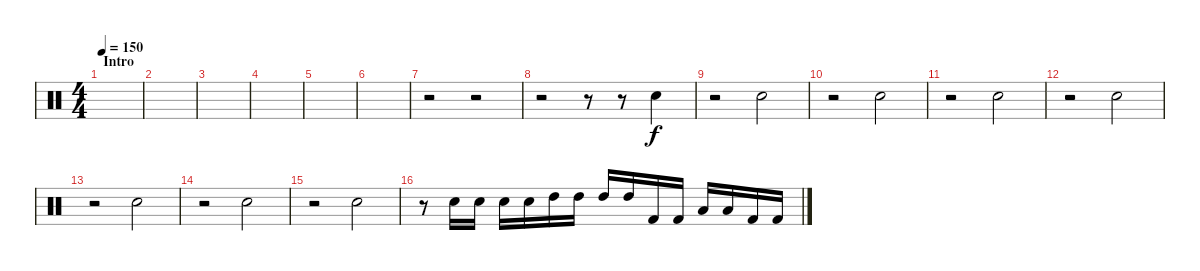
\track "" {instrument percussion}
\staff {score}
\articulation defaults
\ts (4 4)
\section ("" "Intro")
\tempo 150
\clef neutral
\ks c
|
|
|
|
|
|
r.2 r.2 |
r.2 r.8 r.8 "Electric Snare (hit)".4 |
r.2 "Electric Snare (hit)".2 |
r.2 "Electric Snare (hit)".2 |
r.2 "Electric Snare (hit)".2 |
r.2 "Electric Snare (hit)".2 |
r.2 "Electric Snare (hit)".2 |
r.2 "Electric Snare (hit)".2 |
r.2 "Electric Snare (hit)".2 |
r.8 "Electric Snare (hit)".16 "Electric Snare (hit)".16 "Electric Snare (hit)".16 "Electric Snare (hit)".16 "High Tom (hit)".16 "High Tom (hit)".16 "High Tom (hit)".16 "High Tom (hit)".16 "Kick (hit) 2".16 "Kick (hit) 2".16 "Low Tom (hit)".16 "Low Tom (hit)".16 "Kick (hit) 2".16 "Kick (hit) 2".16
